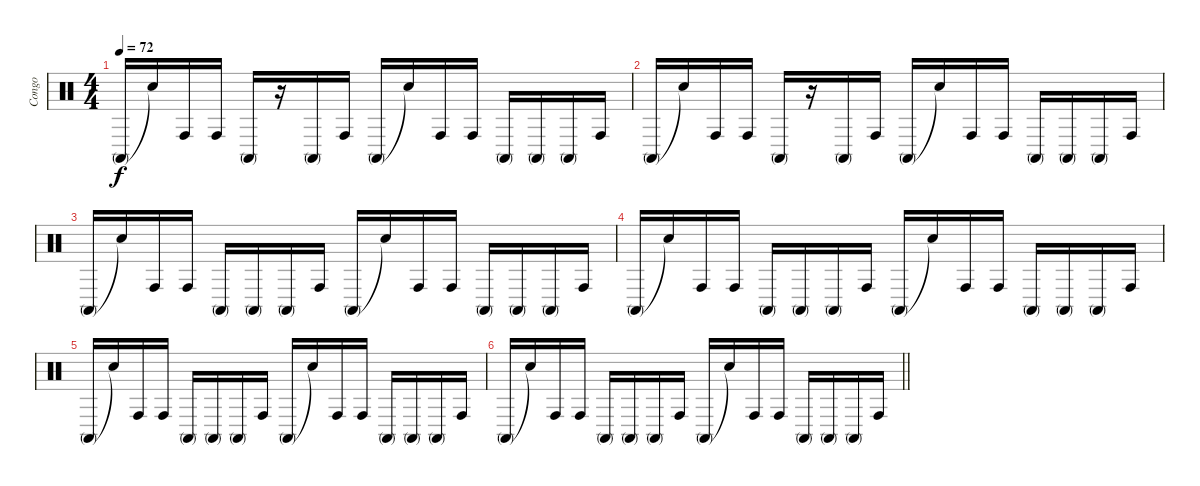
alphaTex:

\track ("Congo" "Congo") {instrument percussion}
\staff {score}
\articulation defaults
\ts (4 4)
\tempo 72
\clef neutral
\ks c "Conga high (mute)".16{dy f} "Snare (hit)"{t}.16 "Conga high (hit)".16 "Conga high (hit)".16 "Conga high (mute)".16
r.16 "Conga high (mute)".16 "Conga high (hit)".16 "Conga high (mute)".16 "Snare (hit)"{t}.16 "Conga high (hit)".16 "Conga high (hit)".16 "Conga high (mute)".16 "Conga high (mute)".16 "Conga high (mute)".16 "Conga high (hit)".16 |
"Conga high (mute)".16 "Snare (hit)"{t}.16 "Conga high (hit)".16 "Conga high (hit)".16 "Conga high (mute)".16 r.16 "Conga high (mute)".16 "Conga high (hit)".16 "Conga high (mute)".16 "Snare (hit)"{t}.16 "Conga high (hit)".16 "Conga high (hit)".16 "Conga high (mute)".16 "Conga high (mute)".16 "Conga high (mute)".16 "Conga high (hit)".16 |
"Conga high (mute)".16 "Snare (hit)"{t}.16 "Conga high (hit)".16 "Conga high (hit)".16 "Conga high (mute)".16 "Conga high (mute)".16 "Conga high (mute)".16 "Conga high (hit)".16 "Conga high (mute)".16 "Snare (hit)"{t}.16 "Conga high (hit)".16 "Conga high (hit)".16 "Conga high (mute)".16 "Conga high (mute)".16 "Conga high (mute)".16 "Conga high (hit)".16 |
"Conga high (mute)".16 "Snare (hit)"{t}.16 "Conga high (hit)".16 "Conga high (hit)".16 "Conga high (mute)".16 "Conga high (mute)".16 "Conga high (mute)".16 "Conga high (hit)".16 "Conga high (mute)".16 "Snare (hit)"{t}.16 "Conga high (hit)".16 "Conga high (hit)".16 "Conga high (mute)".16 "Conga high (mute)".16 "Conga high (mute)".16 "Conga high (hit)".16 |
"Conga high (mute)".16 "Snare (hit)"{t}.16 "Conga high (hit)".16 "Conga high (hit)".16 "Conga high (mute)".16 "Conga high (mute)".16 "Conga high (mute)".16 "Conga high (hit)".16 "Conga high (mute)".16 "Snare (hit)"{t}.16 "Conga high (hit)".16 "Conga high (hit)".16 "Conga high (mute)".16 "Conga high (mute)".16 "Conga high (mute)".16 "Conga high (hit)".16 |
\barLineRight lightlight "Conga high (mute)".16 "Snare (hit)"{t}.16 "Conga high (hit)".16 "Conga high (hit)".16 "Conga high (mute)".16 "Conga high (mute)".16 "Conga high (mute)".16 "Conga high (hit)".16 "Conga high (mute)".16 "Snare (hit)"{t}.16 "Conga high (hit)".16 "Conga high (hit)".16 "Conga high (mute)".16 "Conga high (mute)".16 "Conga high (mute)".16 "Conga high (hit)".16
